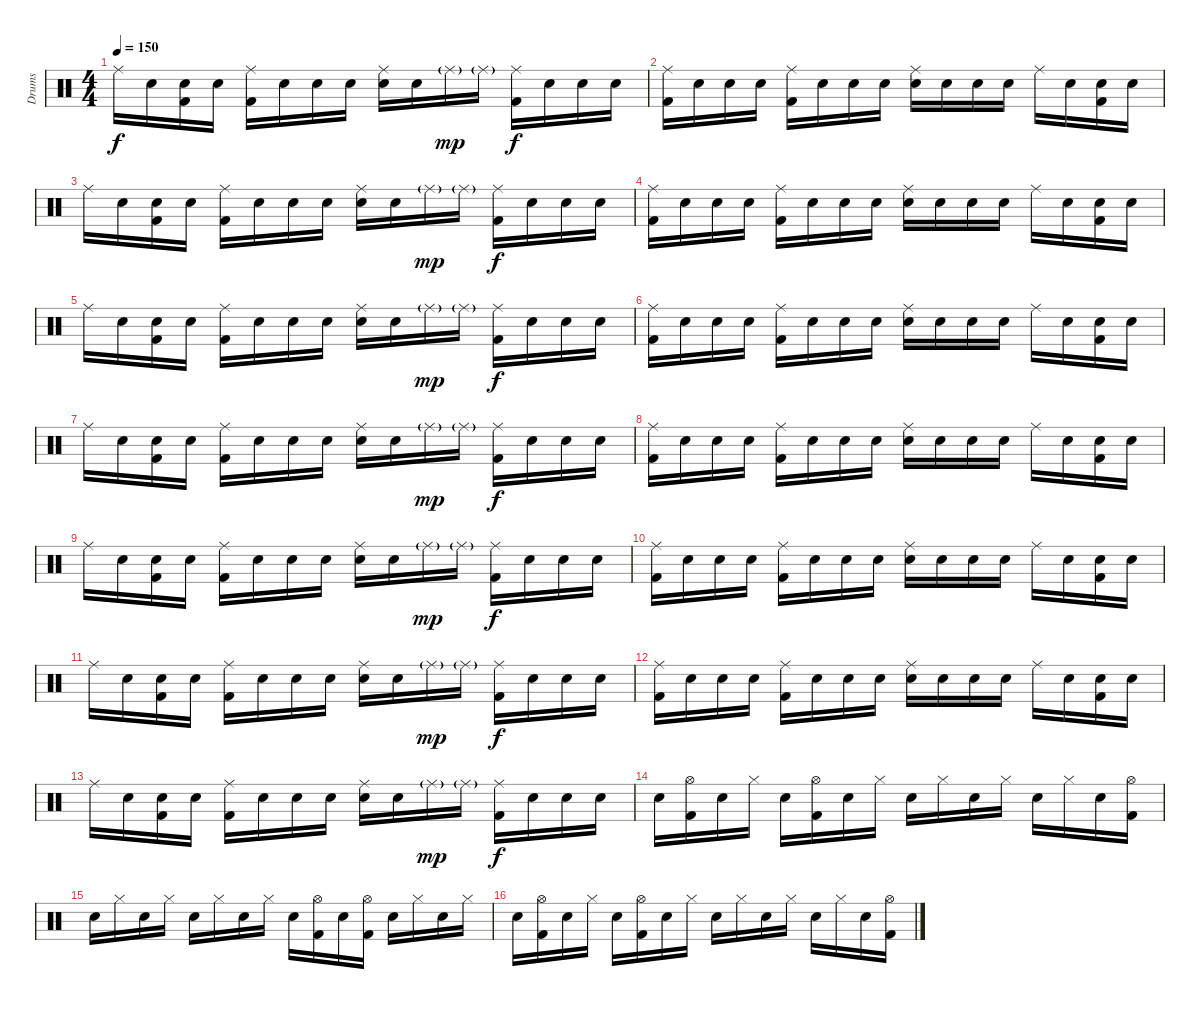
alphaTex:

\track ("Drums" "Drums") {instrument percussion}
\staff {score}
\articulation defaults
\ts (4 4)
\tempo 150
\clef neutral
\ks c "Ride (middle)".16{dy f} "Snare (hit)".16
("Snare (hit)" "Kick (hit) 2").16 "Snare (hit)".16 ("Ride (middle)" "Kick (hit) 2").16 "Snare (hit)".16 "Snare (hit)".16 "Snare (hit)".16 ("Ride (middle)" "Electric Snare (hit)").16 "Snare (hit)".16 "Ride (middle)"{g}.16{dy mp} "Ride (middle)"{g}.16 ("Ride (middle)" "Kick (hit) 2").16{dy f} "Snare (hit)".16 "Snare (hit)".16 "Snare (hit)".16 |
("Ride (middle)" "Kick (hit) 2").16 "Snare (hit)".16 "Snare (hit)".16 "Snare (hit)".16 ("Ride (middle)" "Kick (hit) 2").16 "Snare (hit)".16 "Snare (hit)".16 "Snare (hit)".16 ("Ride (middle)" "Electric Snare (hit)").16 "Snare (hit)".16 "Snare (hit)".16 "Snare (hit)".16 "Ride (middle)".16 "Snare (hit)".16 ("Snare (hit)" "Kick (hit) 2").16 "Snare (hit)".16 |
"Ride (middle)".16 "Snare (hit)".16 ("Snare (hit)" "Kick (hit) 2").16 "Snare (hit)".16 ("Ride (middle)" "Kick (hit) 2").16 "Snare (hit)".16 "Snare (hit)".16 "Snare (hit)".16 ("Ride (middle)" "Electric Snare (hit)").16 "Snare (hit)".16 "Ride (middle)"{g}.16{dy mp} "Ride (middle)"{g}.16 ("Ride (middle)" "Kick (hit) 2").16{dy f} "Snare (hit)".16 "Snare (hit)".16 "Snare (hit)".16 |
("Ride (middle)" "Kick (hit) 2").16 "Snare (hit)".16 "Snare (hit)".16 "Snare (hit)".16 ("Ride (middle)" "Kick (hit) 2").16 "Snare (hit)".16 "Snare (hit)".16 "Snare (hit)".16 ("Ride (middle)" "Electric Snare (hit)").16 "Snare (hit)".16 "Snare (hit)".16 "Snare (hit)".16 "Ride (middle)".16 "Snare (hit)".16 ("Snare (hit)" "Kick (hit) 2").16 "Snare (hit)".16 |
"Ride (middle)".16 "Snare (hit)".16 ("Snare (hit)" "Kick (hit) 2").16 "Snare (hit)".16 ("Ride (middle)" "Kick (hit) 2").16 "Snare (hit)".16 "Snare (hit)".16 "Snare (hit)".16 ("Ride (middle)" "Electric Snare (hit)").16 "Snare (hit)".16 "Ride (middle)"{g}.16{dy mp} "Ride (middle)"{g}.16 ("Ride (middle)" "Kick (hit) 2").16{dy f} "Snare (hit)".16 "Snare (hit)".16 "Snare (hit)".16 |
("Ride (middle)" "Kick (hit) 2").16 "Snare (hit)".16 "Snare (hit)".16 "Snare (hit)".16 ("Ride (middle)" "Kick (hit) 2").16 "Snare (hit)".16 "Snare (hit)".16 "Snare (hit)".16 ("Ride (middle)" "Electric Snare (hit)").16 "Snare (hit)".16 "Snare (hit)".16 "Snare (hit)".16 "Ride (middle)".16 "Snare (hit)".16 ("Snare (hit)" "Kick (hit) 2").16 "Snare (hit)".16 |
"Ride (middle)".16 "Snare (hit)".16 ("Snare (hit)" "Kick (hit) 2").16 "Snare (hit)".16 ("Ride (middle)" "Kick (hit) 2").16 "Snare (hit)".16 "Snare (hit)".16 "Snare (hit)".16 ("Ride (middle)" "Electric Snare (hit)").16 "Snare (hit)".16 "Ride (middle)"{g}.16{dy mp} "Ride (middle)"{g}.16 ("Ride (middle)" "Kick (hit) 2").16{dy f} "Snare (hit)".16 "Snare (hit)".16 "Snare (hit)".16 |
("Ride (middle)" "Kick (hit) 2").16 "Snare (hit)".16 "Snare (hit)".16 "Snare (hit)".16 ("Ride (middle)" "Kick (hit) 2").16 "Snare (hit)".16 "Snare (hit)".16 "Snare (hit)".16 ("Ride (middle)" "Electric Snare (hit)").16 "Snare (hit)".16 "Snare (hit)".16 "Snare (hit)".16 "Ride (middle)".16 "Snare (hit)".16 ("Snare (hit)" "Kick (hit) 2").16 "Snare (hit)".16 |
"Ride (middle)".16 "Snare (hit)".16 ("Snare (hit)" "Kick (hit) 2").16 "Snare (hit)".16 ("Ride (middle)" "Kick (hit) 2").16 "Snare (hit)".16 "Snare (hit)".16 "Snare (hit)".16 ("Ride (middle)" "Electric Snare (hit)").16 "Snare (hit)".16 "Ride (middle)"{g}.16{dy mp} "Ride (middle)"{g}.16 ("Ride (middle)" "Kick (hit) 2").16{dy f} "Snare (hit)".16 "Snare (hit)".16 "Snare (hit)".16 |
("Ride (middle)" "Kick (hit) 2").16 "Snare (hit)".16 "Snare (hit)".16 "Snare (hit)".16 ("Ride (middle)" "Kick (hit) 2").16 "Snare (hit)".16 "Snare (hit)".16 "Snare (hit)".16 ("Ride (middle)" "Electric Snare (hit)").16 "Snare (hit)".16 "Snare (hit)".16 "Snare (hit)".16 "Ride (middle)".16 "Snare (hit)".16 ("Snare (hit)" "Kick (hit) 2").16 "Snare (hit)".16 |
"Ride (middle)".16 "Snare (hit)".16 ("Snare (hit)" "Kick (hit) 2").16 "Snare (hit)".16 ("Ride (middle)" "Kick (hit) 2").16 "Snare (hit)".16 "Snare (hit)".16 "Snare (hit)".16 ("Ride (middle)" "Electric Snare (hit)").16 "Snare (hit)".16 "Ride (middle)"{g}.16{dy mp} "Ride (middle)"{g}.16 ("Ride (middle)" "Kick (hit) 2").16{dy f} "Snare (hit)".16 "Snare (hit)".16 "Snare (hit)".16 |
("Ride (middle)" "Kick (hit) 2").16 "Snare (hit)".16 "Snare (hit)".16 "Snare (hit)".16 ("Ride (middle)" "Kick (hit) 2").16 "Snare (hit)".16 "Snare (hit)".16 "Snare (hit)".16 ("Ride (middle)" "Electric Snare (hit)").16 "Snare (hit)".16 "Snare (hit)".16 "Snare (hit)".16 "Ride (middle)".16 "Snare (hit)".16 ("Snare (hit)" "Kick (hit) 2").16 "Snare (hit)".16 |
"Ride (middle)".16 "Snare (hit)".16 ("Snare (hit)" "Kick (hit) 2").16 "Snare (hit)".16 ("Ride (middle)" "Kick (hit) 2").16 "Snare (hit)".16 "Snare (hit)".16 "Snare (hit)".16 ("Ride (middle)" "Electric Snare (hit)").16 "Snare (hit)".16 "Ride (middle)"{g}.16{dy mp} "Ride (middle)"{g}.16 ("Ride (middle)" "Kick (hit) 2").16{dy f} "Snare (hit)".16 "Snare (hit)".16 "Snare (hit)".16 |
"Snare (hit)".16 ("Hi-Hat (open)" "Kick (hit) 2").16 "Snare (hit)".16 "Hi-Hat (closed)".16 "Snare (hit)".16 ("Hi-Hat (open)" "Kick (hit) 2").16 "Snare (hit)".16 "Hi-Hat (closed)".16 "Snare (hit)".16 "Hi-Hat (closed)".16 "Snare (hit)".16 "Hi-Hat (closed)".16 "Snare (hit)".16 "Hi-Hat (closed)".16 "Snare (hit)".16 ("Hi-Hat (open)" "Kick (hit) 2").16 |
"Snare (hit)".16 "Hi-Hat (closed)".16 "Snare (hit)".16 "Hi-Hat (closed)".16 "Snare (hit)".16 "Hi-Hat (closed)".16 "Snare (hit)".16 "Hi-Hat (closed)".16 "Snare (hit)".16 ("Hi-Hat (open)" "Kick (hit) 2").16 "Snare (hit)".16 ("Hi-Hat (open)" "Kick (hit) 2").16 "Snare (hit)".16 "Hi-Hat (closed)".16 "Snare (hit)".16 "Hi-Hat (closed)".16 |
"Snare (hit)".16 ("Hi-Hat (open)" "Kick (hit) 2").16 "Snare (hit)".16 "Hi-Hat (closed)".16 "Snare (hit)".16 ("Hi-Hat (open)" "Kick (hit) 2").16 "Snare (hit)".16 "Hi-Hat (closed)".16 "Snare (hit)".16 "Hi-Hat (closed)".16 "Snare (hit)".16 "Hi-Hat (closed)".16 "Snare (hit)".16 "Hi-Hat (closed)".16 "Snare (hit)".16 ("Hi-Hat (open)" "Kick (hit) 2").16
